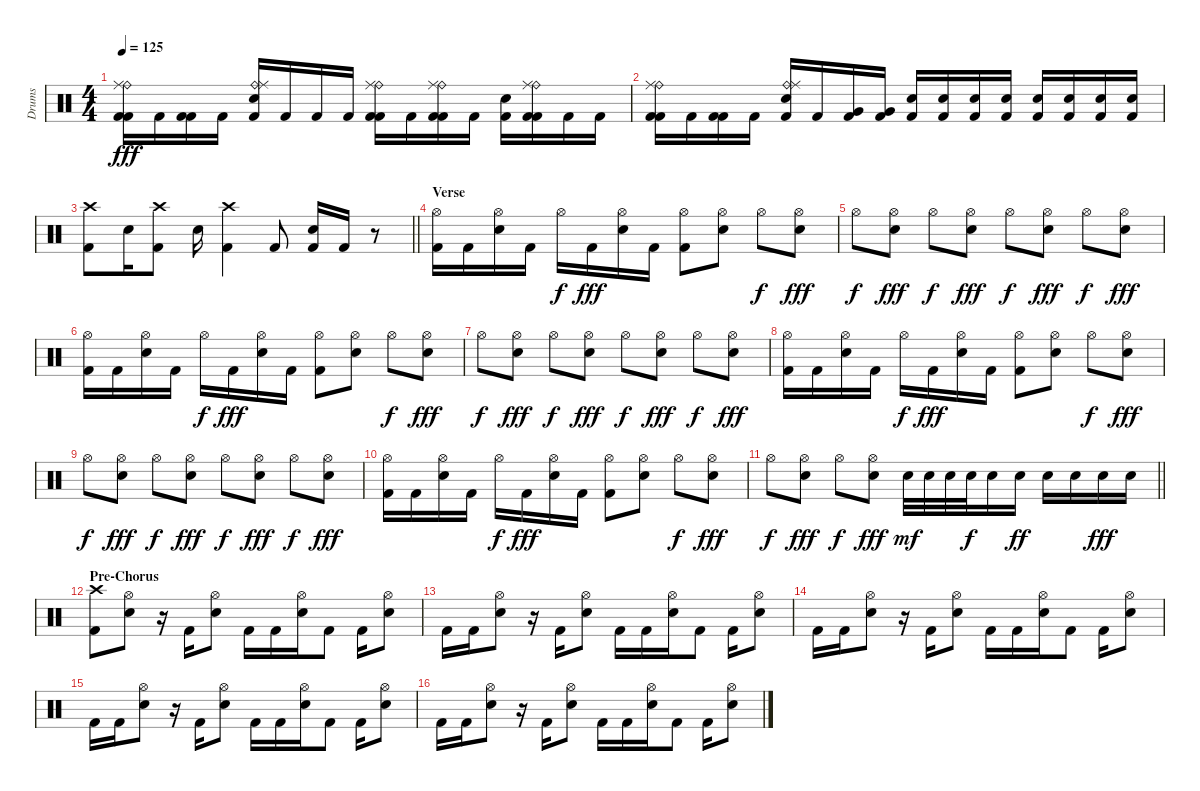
\track ("Drums" "Drums") {instrument percussion}
\staff {score}
\articulation defaults
\ts (4 4)
\tempo 125
\clef neutral
\ks c
("Kick (hit) 2" "Kick (hit) 2" "Ride (bell)" "Ride (middle)").16{dy fff} "Kick (hit) 2".16 ("Kick (hit) 2" "Kick (hit) 2").16 "Kick (hit) 2".16 ("Kick (hit) 2" "Snare (hit) 2" "Ride (bell)" "Ride (middle)").16 "Kick (hit) 2".16 "Kick (hit) 2".16 "Kick (hit) 2".16 ("Kick (hit) 2" "Kick (hit) 2" "Ride (bell)" "Ride (middle)").16 "Kick (hit) 2".16 ("Kick (hit) 2" "Kick (hit) 2" "Ride (bell)" "Ride (middle)").16 "Kick (hit) 2".16 ("Kick (hit) 2" "Snare (hit) 2").16 ("Kick (hit) 2" "Kick (hit) 2" "Ride (bell)" "Ride (middle)").16 "Kick (hit) 2".16 "Kick (hit) 2".16 |
("Kick (hit) 2" "Kick (hit) 2" "Ride (bell)" "Ride (middle)").16 "Kick (hit) 2".16 ("Kick (hit) 2" "Kick (hit) 2").16 "Kick (hit) 2".16 ("Kick (hit) 2" "Snare (hit) 2" "Ride (bell)" "Ride (middle)").16 "Kick (hit) 2".16 ("Kick (hit) 2" "Very Low Tom (hit)").16 ("Kick (hit) 2" "Very Low Tom (hit)").16 ("Kick (hit) 2" "Snare (hit) 2").16 ("Kick (hit) 2" "Snare (hit) 2").16 ("Kick (hit) 2" "Snare (hit) 2").16 ("Kick (hit) 2" "Snare (hit) 2").16 ("Kick (hit) 2" "Snare (hit) 2").16 ("Kick (hit) 2" "Snare (hit) 2").16 ("Kick (hit) 2" "Snare (hit) 2").16 ("Kick (hit) 2" "Snare (hit) 2").16 |
\barLineRight lightlight
("Kick (hit) 2" "Crash high (hit)").8 "Snare (hit) 2".16 ("Kick (hit) 2" "Crash high (hit)").8 "Snare (hit) 2".16 ("Kick (hit) 2" "Crash high (hit)").4 "Kick (hit) 2".8 ("Kick (hit) 2" "Snare (hit) 2").16 "Kick (hit) 2".16 r.8 |
\section ("" "Verse")
("Kick (hit) 2" "Hi-Hat (open)").16 "Kick (hit) 2".16 ("Snare (hit) 2" "Hi-Hat (open)").16 "Kick (hit) 2".16 "Hi-Hat (open)".16{dy f} "Kick (hit) 2".16{dy fff} ("Snare (hit) 2" "Hi-Hat (open)").16 "Kick (hit) 2".16 ("Kick (hit) 2" "Hi-Hat (open)").8 ("Snare (hit) 2" "Hi-Hat (open)").8 "Hi-Hat (open)".8{dy f} ("Snare (hit) 2" "Hi-Hat (open)").8{dy fff} |
"Hi-Hat (open)".8{dy f} ("Snare (hit) 2" "Hi-Hat (open)").8{dy fff} "Hi-Hat (open)".8{dy f} ("Snare (hit) 2" "Hi-Hat (open)").8{dy fff} "Hi-Hat (open)".8{dy f} ("Snare (hit) 2" "Hi-Hat (open)").8{dy fff} "Hi-Hat (open)".8{dy f} ("Snare (hit) 2" "Hi-Hat (open)").8{dy fff} |
("Kick (hit) 2" "Hi-Hat (open)").16 "Kick (hit) 2".16 ("Snare (hit) 2" "Hi-Hat (open)").16 "Kick (hit) 2".16 "Hi-Hat (open)".16{dy f} "Kick (hit) 2".16{dy fff} ("Snare (hit) 2" "Hi-Hat (open)").16 "Kick (hit) 2".16 ("Kick (hit) 2" "Hi-Hat (open)").8 ("Snare (hit) 2" "Hi-Hat (open)").8 "Hi-Hat (open)".8{dy f} ("Snare (hit) 2" "Hi-Hat (open)").8{dy fff} |
"Hi-Hat (open)".8{dy f} ("Snare (hit) 2" "Hi-Hat (open)").8{dy fff} "Hi-Hat (open)".8{dy f} ("Snare (hit) 2" "Hi-Hat (open)").8{dy fff} "Hi-Hat (open)".8{dy f} ("Snare (hit) 2" "Hi-Hat (open)").8{dy fff} "Hi-Hat (open)".8{dy f} ("Snare (hit) 2" "Hi-Hat (open)").8{dy fff} |
("Kick (hit) 2" "Hi-Hat (open)").16 "Kick (hit) 2".16 ("Snare (hit) 2" "Hi-Hat (open)").16 "Kick (hit) 2".16 "Hi-Hat (open)".16{dy f} "Kick (hit) 2".16{dy fff} ("Snare (hit) 2" "Hi-Hat (open)").16 "Kick (hit) 2".16 ("Kick (hit) 2" "Hi-Hat (open)").8 ("Snare (hit) 2" "Hi-Hat (open)").8 "Hi-Hat (open)".8{dy f} ("Snare (hit) 2" "Hi-Hat (open)").8{dy fff} |
"Hi-Hat (open)".8{dy f} ("Snare (hit) 2" "Hi-Hat (open)").8{dy fff} "Hi-Hat (open)".8{dy f} ("Snare (hit) 2" "Hi-Hat (open)").8{dy fff} "Hi-Hat (open)".8{dy f} ("Snare (hit) 2" "Hi-Hat (open)").8{dy fff} "Hi-Hat (open)".8{dy f} ("Snare (hit) 2" "Hi-Hat (open)").8{dy fff} |
("Kick (hit) 2" "Hi-Hat (open)").16 "Kick (hit) 2".16 ("Snare (hit) 2" "Hi-Hat (open)").16 "Kick (hit) 2".16 "Hi-Hat (open)".16{dy f} "Kick (hit) 2".16{dy fff} ("Snare (hit) 2" "Hi-Hat (open)").16 "Kick (hit) 2".16 ("Kick (hit) 2" "Hi-Hat (open)").8 ("Snare (hit) 2" "Hi-Hat (open)").8 "Hi-Hat (open)".8{dy f} ("Snare (hit) 2" "Hi-Hat (open)").8{dy fff} |
\barLineRight lightlight "Hi-Hat (open)".8{dy f}
("Snare (hit) 2" "Hi-Hat (open)").8{dy fff} "Hi-Hat (open)".8{dy f} ("Snare (hit) 2" "Hi-Hat (open)").8{dy fff} "Snare (hit) 2".32{dy mf} "Snare (hit) 2".32 "Snare (hit) 2".32 "Snare (hit) 2".32{dy f} "Snare (hit) 2".16 "Snare (hit) 2".16{dy ff} "Snare (hit) 2".16 "Snare (hit) 2".16 "Snare (hit) 2".16{dy fff} "Snare (hit) 2".16 |
\section ("" "Pre-Chorus")
("Kick (hit) 2" "Crash high (hit)").8 ("Snare (hit) 2" "Hi-Hat (open)").8 r.16 "Kick (hit) 2".16 ("Snare (hit) 2" "Hi-Hat (open)").8 "Kick (hit) 2".16 "Kick (hit) 2".16 ("Snare (hit) 2" "Hi-Hat (open)").16 "Kick (hit) 2".8 "Kick (hit) 2".16 ("Snare (hit) 2" "Hi-Hat (open)").8 |
"Kick (hit) 2".16 "Kick (hit) 2".16 ("Snare (hit) 2" "Hi-Hat (open)").8 r.16 "Kick (hit) 2".16 ("Snare (hit) 2" "Hi-Hat (open)").8 "Kick (hit) 2".16 "Kick (hit) 2".16 ("Snare (hit) 2" "Hi-Hat (open)").16 "Kick (hit) 2".8 "Kick (hit) 2".16 ("Snare (hit) 2" "Hi-Hat (open)").8 |
"Kick (hit) 2".16 "Kick (hit) 2".16 ("Snare (hit) 2" "Hi-Hat (open)").8 r.16 "Kick (hit) 2".16 ("Snare (hit) 2" "Hi-Hat (open)").8 "Kick (hit) 2".16 "Kick (hit) 2".16 ("Snare (hit) 2" "Hi-Hat (open)").16 "Kick (hit) 2".8 "Kick (hit) 2".16 ("Snare (hit) 2" "Hi-Hat (open)").8 |
"Kick (hit) 2".16 "Kick (hit) 2".16 ("Snare (hit) 2" "Hi-Hat (open)").8 r.16 "Kick (hit) 2".16 ("Snare (hit) 2" "Hi-Hat (open)").8 "Kick (hit) 2".16 "Kick (hit) 2".16 ("Snare (hit) 2" "Hi-Hat (open)").16 "Kick (hit) 2".8 "Kick (hit) 2".16 ("Snare (hit) 2" "Hi-Hat (open)").8 |
"Kick (hit) 2".16 "Kick (hit) 2".16 ("Snare (hit) 2" "Hi-Hat (open)").8 r.16 "Kick (hit) 2".16 ("Snare (hit) 2" "Hi-Hat (open)").8 "Kick (hit) 2".16 "Kick (hit) 2".16 ("Snare (hit) 2" "Hi-Hat (open)").16 "Kick (hit) 2".8 "Kick (hit) 2".16 ("Snare (hit) 2" "Hi-Hat (open)").8
